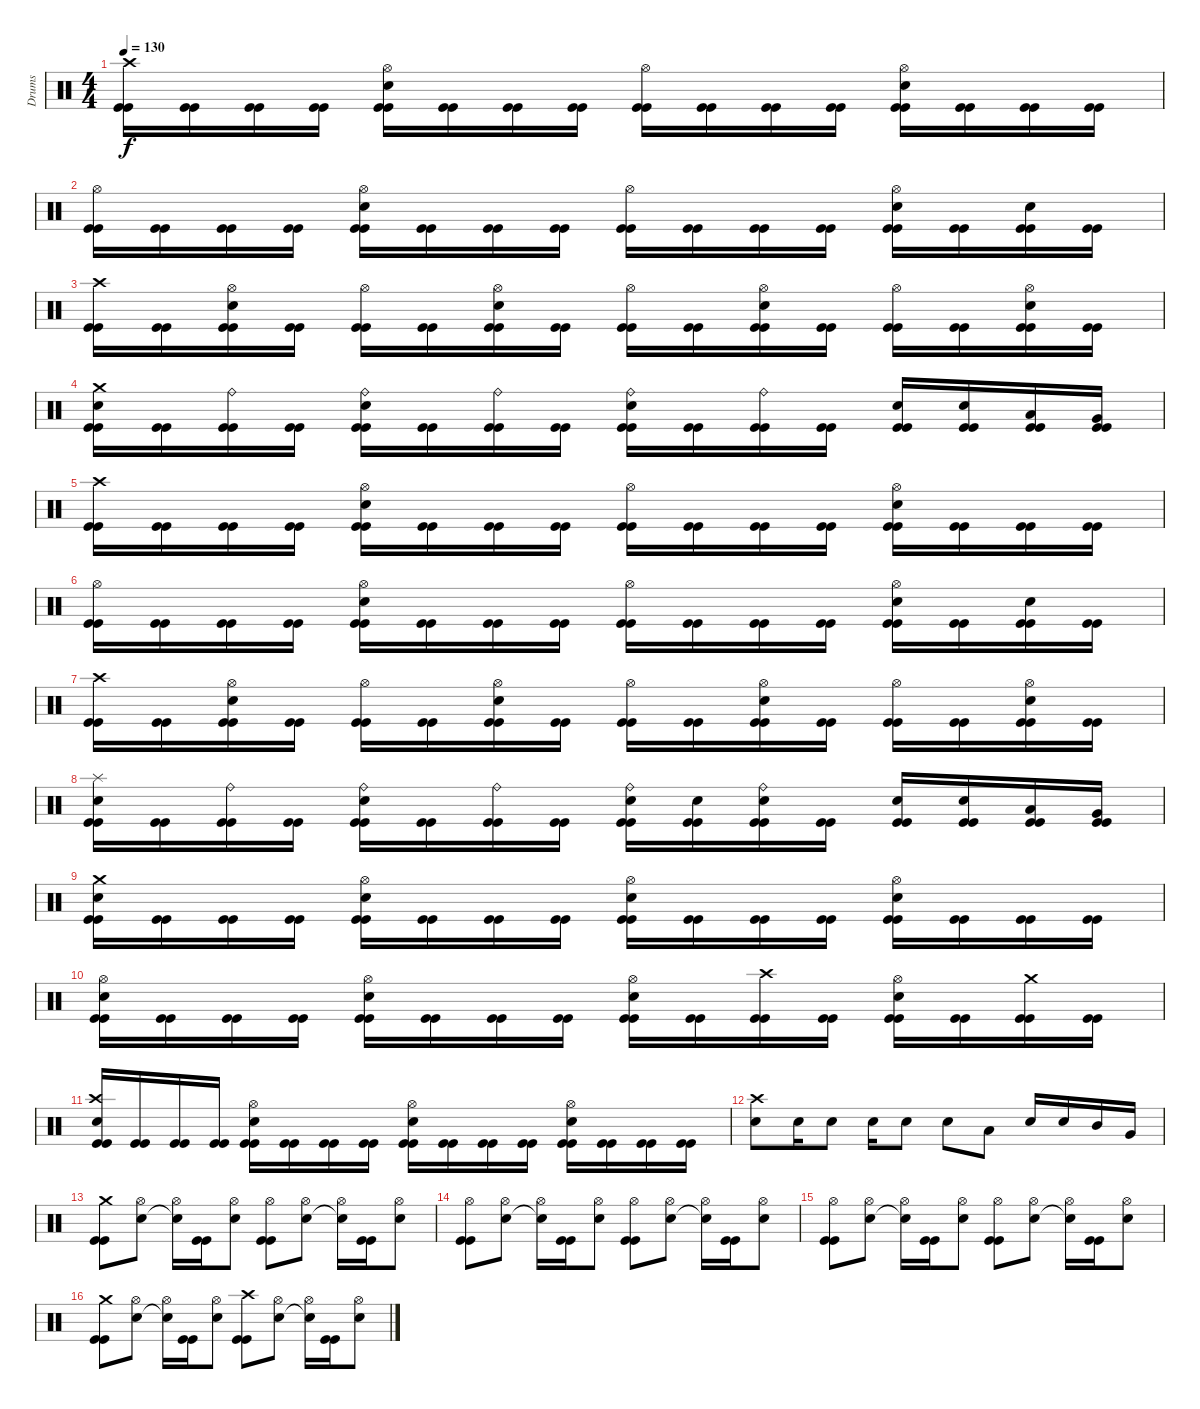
\track ("Drums" "Drums") {instrument percussion}
\staff {score}
\articulation defaults
\ts (4 4)
\tempo 130
\clef neutral
\ks c
("Kick (hit)" "Kick (hit)" "Crash high (hit)").16{dy f} ("Kick (hit)" "Kick (hit)").16 ("Kick (hit)" "Kick (hit)").16 ("Kick (hit)" "Kick (hit)").16 ("Kick (hit)" "Kick (hit)" "Snare (hit) 2" "Hi-Hat (open)").16 ("Kick (hit)" "Kick (hit)").16 ("Kick (hit)" "Kick (hit)").16 ("Kick (hit)" "Kick (hit)").16 ("Kick (hit)" "Kick (hit)" "Hi-Hat (open)").16 ("Kick (hit)" "Kick (hit)").16 ("Kick (hit)" "Kick (hit)").16 ("Kick (hit)" "Kick (hit)").16 ("Kick (hit)" "Kick (hit)" "Snare (hit) 2" "Hi-Hat (open)").16 ("Kick (hit)" "Kick (hit)").16 ("Kick (hit)" "Kick (hit)").16 ("Kick (hit)" "Kick (hit)").16 |
("Kick (hit)" "Kick (hit)" "Hi-Hat (open)").16 ("Kick (hit)" "Kick (hit)").16 ("Kick (hit)" "Kick (hit)").16 ("Kick (hit)" "Kick (hit)").16 ("Kick (hit)" "Kick (hit)" "Snare (hit) 2" "Hi-Hat (open)").16 ("Kick (hit)" "Kick (hit)").16 ("Kick (hit)" "Kick (hit)").16 ("Kick (hit)" "Kick (hit)").16 ("Kick (hit)" "Kick (hit)" "Hi-Hat (open)").16 ("Kick (hit)" "Kick (hit)").16 ("Kick (hit)" "Kick (hit)").16 ("Kick (hit)" "Kick (hit)").16 ("Kick (hit)" "Kick (hit)" "Snare (hit) 2" "Hi-Hat (open)").16 ("Kick (hit)" "Kick (hit)").16 ("Kick (hit)" "Kick (hit)" "Snare (hit) 2").16 ("Kick (hit)" "Kick (hit)").16 |
("Kick (hit)" "Kick (hit)" "Crash high (hit)").16 ("Kick (hit)" "Kick (hit)").16 ("Kick (hit)" "Kick (hit)" "Snare (hit) 2" "Hi-Hat (open)").16 ("Kick (hit)" "Kick (hit)").16 ("Kick (hit)" "Kick (hit)" "Hi-Hat (open)").16 ("Kick (hit)" "Kick (hit)").16 ("Kick (hit)" "Kick (hit)" "Snare (hit) 2" "Hi-Hat (open)").16 ("Kick (hit)" "Kick (hit)").16 ("Kick (hit)" "Kick (hit)" "Hi-Hat (open)").16 ("Kick (hit)" "Kick (hit)").16 ("Kick (hit)" "Kick (hit)" "Snare (hit) 2" "Hi-Hat (open)").16 ("Kick (hit)" "Kick (hit)").16 ("Kick (hit)" "Kick (hit)" "Hi-Hat (open)").16 ("Kick (hit)" "Kick (hit)").16 ("Kick (hit)" "Kick (hit)" "Snare (hit) 2" "Hi-Hat (open)").16 ("Kick (hit)" "Kick (hit)").16 |
("Kick (hit)" "Kick (hit)" "Snare (hit) 2" "Crash medium (hit)").16 ("Kick (hit)" "Kick (hit)").16 ("Kick (hit)" "Kick (hit)" "Ride (bell)").16 ("Kick (hit)" "Kick (hit)").16 ("Kick (hit)" "Kick (hit)" "Snare (hit) 2" "Ride (bell)").16 ("Kick (hit)" "Kick (hit)").16 ("Kick (hit)" "Kick (hit)" "Ride (bell)").16 ("Kick (hit)" "Kick (hit)").16 ("Kick (hit)" "Kick (hit)" "Snare (hit) 2" "Ride (bell)").16 ("Kick (hit)" "Kick (hit)").16 ("Kick (hit)" "Kick (hit)" "Ride (bell)").16 ("Kick (hit)" "Kick (hit)").16 ("Kick (hit)" "Kick (hit)" "Snare (hit) 2").16 ("Kick (hit)" "Kick (hit)" "Snare (hit) 2").16 ("Kick (hit)" "Kick (hit)" "Low Tom (hit)").16 ("Kick (hit)" "Kick (hit)" "Very Low Tom (hit)").16 |
("Kick (hit)" "Kick (hit)" "Crash high (hit)").16 ("Kick (hit)" "Kick (hit)").16 ("Kick (hit)" "Kick (hit)").16 ("Kick (hit)" "Kick (hit)").16 ("Kick (hit)" "Kick (hit)" "Snare (hit) 2" "Hi-Hat (open)").16 ("Kick (hit)" "Kick (hit)").16 ("Kick (hit)" "Kick (hit)").16 ("Kick (hit)" "Kick (hit)").16 ("Kick (hit)" "Kick (hit)" "Hi-Hat (open)").16 ("Kick (hit)" "Kick (hit)").16 ("Kick (hit)" "Kick (hit)").16 ("Kick (hit)" "Kick (hit)").16 ("Kick (hit)" "Kick (hit)" "Snare (hit) 2" "Hi-Hat (open)").16 ("Kick (hit)" "Kick (hit)").16 ("Kick (hit)" "Kick (hit)").16 ("Kick (hit)" "Kick (hit)").16 |
("Kick (hit)" "Kick (hit)" "Hi-Hat (open)").16 ("Kick (hit)" "Kick (hit)").16 ("Kick (hit)" "Kick (hit)").16 ("Kick (hit)" "Kick (hit)").16 ("Kick (hit)" "Kick (hit)" "Snare (hit) 2" "Hi-Hat (open)").16 ("Kick (hit)" "Kick (hit)").16 ("Kick (hit)" "Kick (hit)").16 ("Kick (hit)" "Kick (hit)").16 ("Kick (hit)" "Kick (hit)" "Hi-Hat (open)").16 ("Kick (hit)" "Kick (hit)").16 ("Kick (hit)" "Kick (hit)").16 ("Kick (hit)" "Kick (hit)").16 ("Kick (hit)" "Kick (hit)" "Snare (hit) 2" "Hi-Hat (open)").16 ("Kick (hit)" "Kick (hit)").16 ("Kick (hit)" "Kick (hit)" "Snare (hit) 2").16 ("Kick (hit)" "Kick (hit)").16 |
("Kick (hit)" "Kick (hit)" "Crash high (hit)").16 ("Kick (hit)" "Kick (hit)").16 ("Kick (hit)" "Kick (hit)" "Snare (hit) 2" "Hi-Hat (open)").16 ("Kick (hit)" "Kick (hit)").16 ("Kick (hit)" "Kick (hit)" "Hi-Hat (open)").16 ("Kick (hit)" "Kick (hit)").16 ("Kick (hit)" "Kick (hit)" "Snare (hit) 2" "Hi-Hat (open)").16 ("Kick (hit)" "Kick (hit)").16 ("Kick (hit)" "Kick (hit)" "Hi-Hat (open)").16 ("Kick (hit)" "Kick (hit)").16 ("Kick (hit)" "Kick (hit)" "Snare (hit) 2" "Hi-Hat (open)").16 ("Kick (hit)" "Kick (hit)").16 ("Kick (hit)" "Kick (hit)" "Hi-Hat (open)").16 ("Kick (hit)" "Kick (hit)").16 ("Kick (hit)" "Kick (hit)" "Snare (hit) 2" "Hi-Hat (open)").16 ("Kick (hit)" "Kick (hit)").16 |
("Kick (hit)" "Kick (hit)" "Snare (hit) 2" "Splash (hit)").16 ("Kick (hit)" "Kick (hit)").16 ("Kick (hit)" "Kick (hit)" "Ride (bell)").16 ("Kick (hit)" "Kick (hit)").16 ("Kick (hit)" "Kick (hit)" "Snare (hit) 2" "Ride (bell)").16 ("Kick (hit)" "Kick (hit)").16 ("Kick (hit)" "Kick (hit)" "Ride (bell)").16 ("Kick (hit)" "Kick (hit)").16 ("Kick (hit)" "Kick (hit)" "Snare (hit) 2" "Ride (bell)").16 ("Kick (hit)" "Kick (hit)" "Snare (hit) 2").16 ("Kick (hit)" "Kick (hit)" "Snare (hit) 2" "Ride (bell)").16 ("Kick (hit)" "Kick (hit)").16 ("Kick (hit)" "Kick (hit)" "Snare (hit) 2").16 ("Kick (hit)" "Kick (hit)" "Snare (hit) 2").16 ("Kick (hit)" "Kick (hit)" "Low Tom (hit)").16 ("Kick (hit)" "Kick (hit)" "Very Low Tom (hit)").16 |
("Kick (hit)" "Kick (hit)" "Snare (hit) 2" "Crash medium (hit)").16 ("Kick (hit)" "Kick (hit)").16 ("Kick (hit)" "Kick (hit)").16 ("Kick (hit)" "Kick (hit)").16 ("Kick (hit)" "Kick (hit)" "Snare (hit) 2" "Hi-Hat (open)").16 ("Kick (hit)" "Kick (hit)").16 ("Kick (hit)" "Kick (hit)").16 ("Kick (hit)" "Kick (hit)").16 ("Kick (hit)" "Kick (hit)" "Snare (hit) 2" "Hi-Hat (open)").16 ("Kick (hit)" "Kick (hit)").16 ("Kick (hit)" "Kick (hit)").16 ("Kick (hit)" "Kick (hit)").16 ("Kick (hit)" "Kick (hit)" "Snare (hit) 2" "Hi-Hat (open)").16 ("Kick (hit)" "Kick (hit)").16 ("Kick (hit)" "Kick (hit)").16 ("Kick (hit)" "Kick (hit)").16 |
("Kick (hit)" "Kick (hit)" "Snare (hit) 2" "Hi-Hat (open)").16 ("Kick (hit)" "Kick (hit)").16 ("Kick (hit)" "Kick (hit)").16 ("Kick (hit)" "Kick (hit)").16 ("Kick (hit)" "Kick (hit)" "Snare (hit) 2" "Hi-Hat (open)").16 ("Kick (hit)" "Kick (hit)").16 ("Kick (hit)" "Kick (hit)").16 ("Kick (hit)" "Kick (hit)").16 ("Kick (hit)" "Kick (hit)" "Snare (hit) 2" "Hi-Hat (open)").16 ("Kick (hit)" "Kick (hit)").16 ("Kick (hit)" "Kick (hit)" "Crash high (hit)").16 ("Kick (hit)" "Kick (hit)").16 ("Kick (hit)" "Kick (hit)" "Snare (hit) 2" "Hi-Hat (open)").16 ("Kick (hit)" "Kick (hit)").16 ("Kick (hit)" "Kick (hit)" "Crash medium (hit)").16 ("Kick (hit)" "Kick (hit)").16 |
("Kick (hit)" "Kick (hit)" "Snare (hit) 2" "Crash high (hit)").16 ("Kick (hit)" "Kick (hit)").16 ("Kick (hit)" "Kick (hit)").16 ("Kick (hit)" "Kick (hit)").16 ("Kick (hit)" "Kick (hit)" "Snare (hit) 2" "Hi-Hat (open)").16 ("Kick (hit)" "Kick (hit)").16 ("Kick (hit)" "Kick (hit)").16 ("Kick (hit)" "Kick (hit)").16 ("Kick (hit)" "Kick (hit)" "Snare (hit) 2" "Hi-Hat (open)").16 ("Kick (hit)" "Kick (hit)").16 ("Kick (hit)" "Kick (hit)").16 ("Kick (hit)" "Kick (hit)").16 ("Kick (hit)" "Kick (hit)" "Snare (hit) 2" "Hi-Hat (open)").16 ("Kick (hit)" "Kick (hit)").16 ("Kick (hit)" "Kick (hit)").16 ("Kick (hit)" "Kick (hit)").16 |
("Snare (hit) 2" "Crash high (hit)").8 "Snare (hit) 2".16 "Snare (hit) 2".8 "Snare (hit) 2".16 "Snare (hit) 2".8 "Snare (hit) 2".8 "Low Floor Tom (hit)".8 "Snare (hit) 2".16 "Snare (hit) 2".16 "Mid Tom (hit)".16 "Very Low Tom (hit)".16 |
("Kick (hit)" "Kick (hit)" "Crash medium (hit)").8 ("Snare (hit) 2" "Hi-Hat (open)").8 ("Snare (hit)"{t} "Hi-Hat (open)").16 ("Kick (hit)" "Kick (hit)").16 ("Snare (hit) 2" "Hi-Hat (open)").8 ("Kick (hit)" "Kick (hit)" "Hi-Hat (open)").8 ("Snare (hit) 2" "Hi-Hat (open)").8 ("Snare (hit)"{t} "Hi-Hat (open)").16 ("Kick (hit)" "Kick (hit)").16 ("Snare (hit) 2" "Hi-Hat (open)").8 |
("Kick (hit)" "Kick (hit)" "Hi-Hat (open)").8 ("Snare (hit) 2" "Hi-Hat (open)").8 ("Snare (hit)"{t} "Hi-Hat (open)").16 ("Kick (hit)" "Kick (hit)").16 ("Snare (hit) 2" "Hi-Hat (open)").8 ("Kick (hit)" "Kick (hit)" "Hi-Hat (open)").8 ("Snare (hit) 2" "Hi-Hat (open)").8 ("Snare (hit)"{t} "Hi-Hat (open)").16 ("Kick (hit)" "Kick (hit)").16 ("Snare (hit) 2" "Hi-Hat (open)").8 |
("Kick (hit)" "Kick (hit)" "Hi-Hat (open)").8 ("Snare (hit) 2" "Hi-Hat (open)").8 ("Snare (hit)"{t} "Hi-Hat (open)").16 ("Kick (hit)" "Kick (hit)").16 ("Snare (hit) 2" "Hi-Hat (open)").8 ("Kick (hit)" "Kick (hit)" "Hi-Hat (open)").8 ("Snare (hit) 2" "Hi-Hat (open)").8 ("Snare (hit)"{t} "Hi-Hat (open)").16 ("Kick (hit)" "Kick (hit)").16 ("Snare (hit) 2" "Hi-Hat (open)").8 |
("Kick (hit)" "Kick (hit)" "Crash medium (hit)").8 ("Snare (hit) 2" "Hi-Hat (open)").8 ("Snare (hit)"{t} "Hi-Hat (open)").16 ("Kick (hit)" "Kick (hit)").16 ("Snare (hit) 2" "Hi-Hat (open)").8 ("Kick (hit)" "Kick (hit)" "Crash high (hit)").8 ("Snare (hit) 2" "Hi-Hat (open)").8 ("Snare (hit)"{t} "Hi-Hat (open)").16 ("Kick (hit)" "Kick (hit)").16 ("Snare (hit) 2" "Hi-Hat (open)").8
